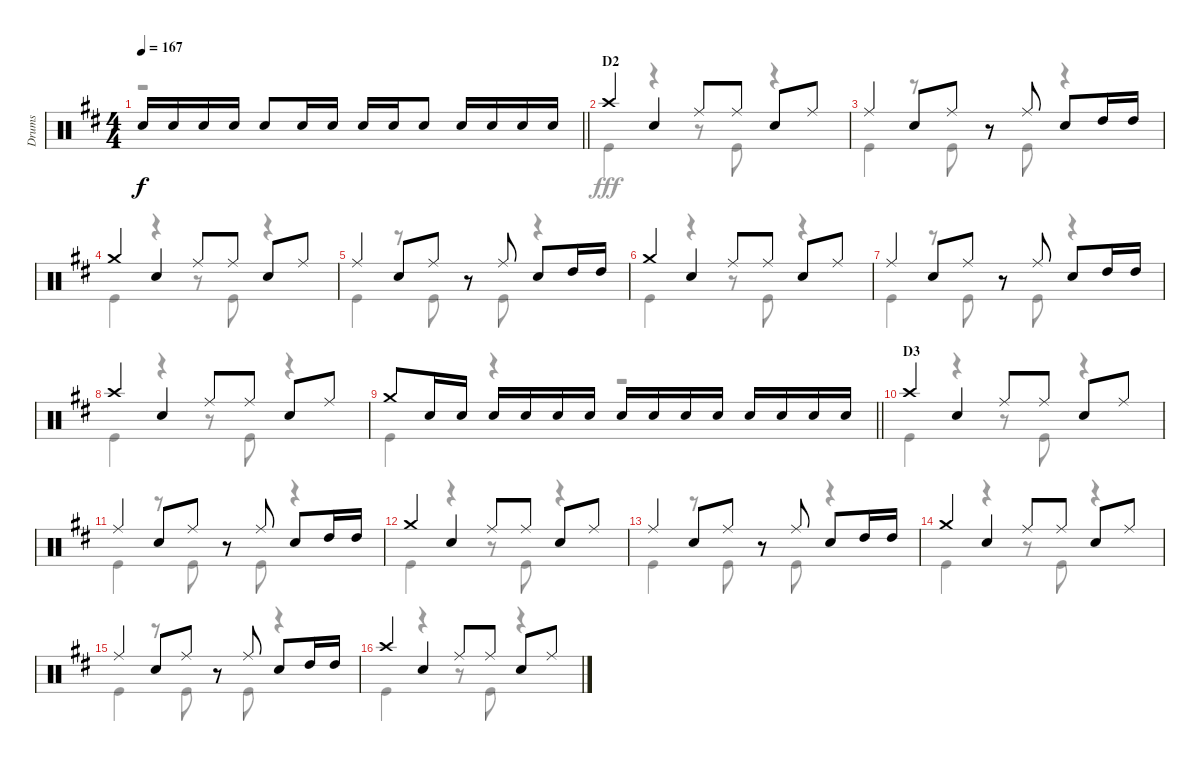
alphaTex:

\track ("Drums" "Drums") {instrument percussion}
\staff {score}
\articulation defaults
\voice
\ts (4 4)
\tempo 167
\clef neutral
\barLineRight lightlight
\ks d "Snare (hit) 2".16{dy f} "Snare (hit) 2".16 "Snare (hit) 2".16 "Snare (hit) 2".16 "Snare (hit) 2".8 "Snare (hit) 2".16 "Snare (hit) 2".16 "Snare (hit) 2".16 "Snare (hit) 2".16 "Snare (hit) 2".8 "Snare (hit) 2".16 "Snare (hit) 2".16 "Snare (hit) 2".16 "Snare (hit) 2".16
|
\section ("" "D2")
"Crash high (hit)".4 "Snare (hit) 2".4 "Ride (middle)".8 "Ride (middle)".8 "Snare (hit) 2".8 "Ride (middle)".8 |
"Ride (middle)".4 "Snare (hit) 2".8 "Ride (middle)".8 r.8 "Ride (middle)".8 "Snare (hit) 2".8 "High Tom (hit)".16 "High Tom (hit)".16 |
"Crash medium (hit)".4 "Snare (hit) 2".4 "Ride (middle)".8 "Ride (middle)".8 "Snare (hit) 2".8 "Ride (middle)".8 |
"Ride (middle)".4 "Snare (hit) 2".8 "Ride (middle)".8 r.8 "Ride (middle)".8 "Snare (hit) 2".8 "High Tom (hit)".16 "High Tom (hit)".16 |
"Crash medium (hit)".4 "Snare (hit) 2".4 "Ride (middle)".8 "Ride (middle)".8 "Snare (hit) 2".8 "Ride (middle)".8 |
"Ride (middle)".4 "Snare (hit) 2".8 "Ride (middle)".8 r.8 "Ride (middle)".8 "Snare (hit) 2".8 "High Tom (hit)".16 "High Tom (hit)".16 |
"Crash high (hit)".4 "Snare (hit) 2".4 "Ride (middle)".8 "Ride (middle)".8 "Snare (hit) 2".8 "Ride (middle)".8 |
\barLineRight lightlight "Crash medium (hit)".8 "Snare (hit) 2".16 "Snare (hit) 2".16 "Snare (hit) 2".16 "Snare (hit) 2".16 "Snare (hit) 2".16 "Snare (hit) 2".16 "Snare (hit) 2".16 "Snare (hit) 2".16 "Snare (hit) 2".16 "Snare (hit) 2".16 "Snare (hit) 2".16 "Snare (hit) 2".16 "Snare (hit) 2".16 "Snare (hit) 2".16
|
\section ("" "D3")
"Crash high (hit)".4 "Snare (hit) 2".4 "Ride (middle)".8 "Ride (middle)".8 "Snare (hit) 2".8 "Ride (middle)".8 |
"Ride (middle)".4 "Snare (hit) 2".8 "Ride (middle)".8 r.8 "Ride (middle)".8 "Snare (hit) 2".8 "High Tom (hit)".16 "High Tom (hit)".16 |
"Crash medium (hit)".4 "Snare (hit) 2".4 "Ride (middle)".8 "Ride (middle)".8 "Snare (hit) 2".8 "Ride (middle)".8 |
"Ride (middle)".4 "Snare (hit) 2".8 "Ride (middle)".8 r.8 "Ride (middle)".8 "Snare (hit) 2".8 "High Tom (hit)".16 "High Tom (hit)".16 |
"Crash medium (hit)".4 "Snare (hit) 2".4 "Ride (middle)".8 "Ride (middle)".8 "Snare (hit) 2".8 "Ride (middle)".8 |
"Ride (middle)".4 "Snare (hit) 2".8 "Ride (middle)".8 r.8 "Ride (middle)".8 "Snare (hit) 2".8 "High Tom (hit)".16 "High Tom (hit)".16 |
"Crash high (hit)".4 "Snare (hit) 2".4 "Ride (middle)".8 "Ride (middle)".8 "Snare (hit) 2".8 "Ride (middle)".8
\voice
\clef neutral
\ottava regular
\simile none
\barLineRight lightlight
\ks d
r.1{dy fff} |
"Kick (hit)".4 r.4 r.8 "Kick (hit)".8 r.4 |
"Kick (hit)".4 r.8 "Kick (hit)".8 r.8 "Kick (hit)".8 r.4 |
"Kick (hit)".4 r.4 r.8 "Kick (hit)".8 r.4 |
"Kick (hit)".4 r.8 "Kick (hit)".8 r.8 "Kick (hit)".8 r.4 |
"Kick (hit)".4 r.4 r.8 "Kick (hit)".8 r.4 |
"Kick (hit)".4 r.8 "Kick (hit)".8 r.8 "Kick (hit)".8 r.4 |
"Kick (hit)".4 r.4 r.8 "Kick (hit)".8 r.4 |
\barLineRight lightlight "Kick (hit)".4
r.4 r.2 |
"Kick (hit)".4 r.4 r.8 "Kick (hit)".8 r.4 |
"Kick (hit)".4 r.8 "Kick (hit)".8 r.8 "Kick (hit)".8 r.4 |
"Kick (hit)".4 r.4 r.8 "Kick (hit)".8 r.4 |
"Kick (hit)".4 r.8 "Kick (hit)".8 r.8 "Kick (hit)".8 r.4 |
"Kick (hit)".4 r.4 r.8 "Kick (hit)".8 r.4 |
"Kick (hit)".4 r.8 "Kick (hit)".8 r.8 "Kick (hit)".8 r.4 |
"Kick (hit)".4 r.4 r.8 "Kick (hit)".8 r.4
